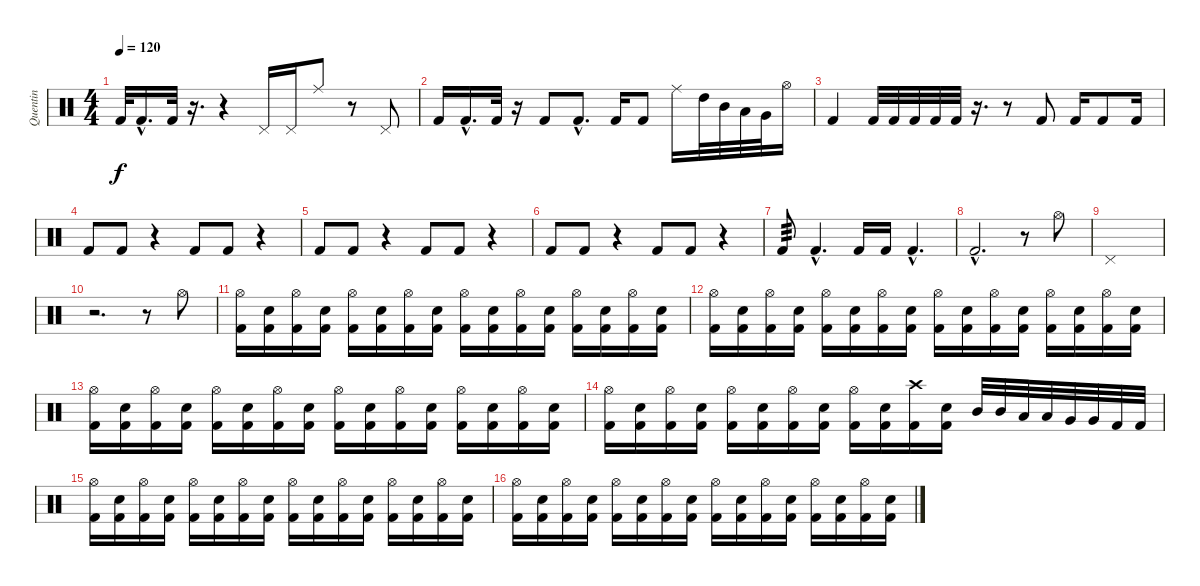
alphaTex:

\track ("Quentin" "Quentin") {instrument percussion}
\staff {score}
\articulation defaults
\ts (4 4)
\tempo 120
\clef neutral
\ks c "Kick (hit) 2".32{dy f} "Kick (hit) 2"{hac}.16{d} "Kick (hit) 2".32
r.16{d} r.4 "Pedal Hi-Hat (hit)".16 "Pedal Hi-Hat (hit)".16 "Ride (middle)".8 r.8 "Pedal Hi-Hat (hit)".8 |
"Kick (hit) 2".16 "Kick (hit) 2"{hac}.16{d} "Kick (hit) 2".32 r.16 "Kick (hit) 2".8 "Kick (hit) 2"{hac}.8{d} "Kick (hit) 2".16 "Kick (hit) 2".8 "Ride (middle)".16 "High Tom (hit)".32 "Mid Tom (hit)".32 "Low Tom (hit)".32 "Very Low Tom (hit)".32 "Hi-Hat (open)".16 |
"Kick (hit) 2".4 "Kick (hit) 2".32 "Kick (hit) 2".32 "Kick (hit) 2".32 "Kick (hit) 2".32 "Kick (hit) 2".32 r.16{d} r.8 "Kick (hit) 2".8 "Kick (hit) 2".16 "Kick (hit) 2".8 "Kick (hit) 2".16 |
"Kick (hit) 2".8 "Kick (hit) 2".8 r.4 "Kick (hit) 2".8 "Kick (hit) 2".8 r.4 |
"Kick (hit) 2".8 "Kick (hit) 2".8 r.4 "Kick (hit) 2".8 "Kick (hit) 2".8 r.4 |
"Kick (hit) 2".8 "Kick (hit) 2".8 r.4 "Kick (hit) 2".8 "Kick (hit) 2".8 r.4 |
"Kick (hit) 2".8{tp 3} "Kick (hit) 2"{hac}.4{d} "Kick (hit) 2".16 "Kick (hit) 2".16 "Kick (hit) 2"{hac}.4{d} |
"Kick (hit) 2"{hac}.2{d} r.8 "Hi-Hat (open)".8 |
"Pedal Hi-Hat (hit)".1 |
r.2{d} r.8 "Hi-Hat (open)".8 |
("Hi-Hat (open)" "Kick (hit) 2").16 ("Snare (hit) 2" "Kick (hit) 2").16 ("Hi-Hat (open)" "Kick (hit) 2").16 ("Snare (hit) 2" "Kick (hit) 2").16 ("Hi-Hat (open)" "Kick (hit) 2").16 ("Snare (hit) 2" "Kick (hit) 2").16 ("Hi-Hat (open)" "Kick (hit) 2").16 ("Snare (hit) 2" "Kick (hit) 2").16 ("Hi-Hat (open)" "Kick (hit) 2").16 ("Snare (hit) 2" "Kick (hit) 2").16 ("Hi-Hat (open)" "Kick (hit) 2").16 ("Snare (hit) 2" "Kick (hit) 2").16 ("Hi-Hat (open)" "Kick (hit) 2").16 ("Snare (hit) 2" "Kick (hit) 2").16 ("Hi-Hat (open)" "Kick (hit) 2").16 ("Snare (hit) 2" "Kick (hit) 2").16 |
("Hi-Hat (open)" "Kick (hit) 2").16 ("Snare (hit) 2" "Kick (hit) 2").16 ("Hi-Hat (open)" "Kick (hit) 2").16 ("Snare (hit) 2" "Kick (hit) 2").16 ("Hi-Hat (open)" "Kick (hit) 2").16 ("Snare (hit) 2" "Kick (hit) 2").16 ("Hi-Hat (open)" "Kick (hit) 2").16 ("Snare (hit) 2" "Kick (hit) 2").16 ("Hi-Hat (open)" "Kick (hit) 2").16 ("Snare (hit) 2" "Kick (hit) 2").16 ("Hi-Hat (open)" "Kick (hit) 2").16 ("Snare (hit) 2" "Kick (hit) 2").16 ("Hi-Hat (open)" "Kick (hit) 2").16 ("Snare (hit) 2" "Kick (hit) 2").16 ("Hi-Hat (open)" "Kick (hit) 2").16 ("Snare (hit) 2" "Kick (hit) 2").16 |
("Hi-Hat (open)" "Kick (hit) 2").16 ("Snare (hit) 2" "Kick (hit) 2").16 ("Hi-Hat (open)" "Kick (hit) 2").16 ("Snare (hit) 2" "Kick (hit) 2").16 ("Hi-Hat (open)" "Kick (hit) 2").16 ("Snare (hit) 2" "Kick (hit) 2").16 ("Hi-Hat (open)" "Kick (hit) 2").16 ("Snare (hit) 2" "Kick (hit) 2").16 ("Hi-Hat (open)" "Kick (hit) 2").16 ("Snare (hit) 2" "Kick (hit) 2").16 ("Hi-Hat (open)" "Kick (hit) 2").16 ("Snare (hit) 2" "Kick (hit) 2").16 ("Hi-Hat (open)" "Kick (hit) 2").16 ("Snare (hit) 2" "Kick (hit) 2").16 ("Hi-Hat (open)" "Kick (hit) 2").16 ("Snare (hit) 2" "Kick (hit) 2").16 |
("Hi-Hat (open)" "Kick (hit) 2").16 ("Snare (hit) 2" "Kick (hit) 2").16 ("Hi-Hat (open)" "Kick (hit) 2").16 ("Snare (hit) 2" "Kick (hit) 2").16 ("Hi-Hat (open)" "Kick (hit) 2").16 ("Snare (hit) 2" "Kick (hit) 2").16 ("Hi-Hat (open)" "Kick (hit) 2").16 ("Snare (hit) 2" "Kick (hit) 2").16 ("Hi-Hat (open)" "Kick (hit) 2").16 ("Snare (hit) 2" "Kick (hit) 2").16 ("Crash high (hit)" "Kick (hit) 2").16 ("Snare (hit) 2" "Kick (hit) 2").16 "Mid Tom (hit)".32 "Mid Tom (hit)".32 "Low Tom (hit)".32 "Low Tom (hit)".32 "Very Low Tom (hit)".32 "Very Low Tom (hit)".32 "Kick (hit) 2".32 "Kick (hit) 2".32 |
("Hi-Hat (open)" "Kick (hit) 2").16 ("Snare (hit) 2" "Kick (hit) 2").16 ("Hi-Hat (open)" "Kick (hit) 2").16 ("Snare (hit) 2" "Kick (hit) 2").16 ("Hi-Hat (open)" "Kick (hit) 2").16 ("Snare (hit) 2" "Kick (hit) 2").16 ("Hi-Hat (open)" "Kick (hit) 2").16 ("Snare (hit) 2" "Kick (hit) 2").16 ("Hi-Hat (open)" "Kick (hit) 2").16 ("Snare (hit) 2" "Kick (hit) 2").16 ("Hi-Hat (open)" "Kick (hit) 2").16 ("Snare (hit) 2" "Kick (hit) 2").16 ("Hi-Hat (open)" "Kick (hit) 2").16 ("Snare (hit) 2" "Kick (hit) 2").16 ("Hi-Hat (open)" "Kick (hit) 2").16 ("Snare (hit) 2" "Kick (hit) 2").16 |
("Hi-Hat (open)" "Kick (hit) 2").16 ("Snare (hit) 2" "Kick (hit) 2").16 ("Hi-Hat (open)" "Kick (hit) 2").16 ("Snare (hit) 2" "Kick (hit) 2").16 ("Hi-Hat (open)" "Kick (hit) 2").16 ("Snare (hit) 2" "Kick (hit) 2").16 ("Hi-Hat (open)" "Kick (hit) 2").16 ("Snare (hit) 2" "Kick (hit) 2").16 ("Hi-Hat (open)" "Kick (hit) 2").16 ("Snare (hit) 2" "Kick (hit) 2").16 ("Hi-Hat (open)" "Kick (hit) 2").16 ("Snare (hit) 2" "Kick (hit) 2").16 ("Hi-Hat (open)" "Kick (hit) 2").16 ("Snare (hit) 2" "Kick (hit) 2").16 ("Hi-Hat (open)" "Kick (hit) 2").16 ("Snare (hit) 2" "Kick (hit) 2").16
